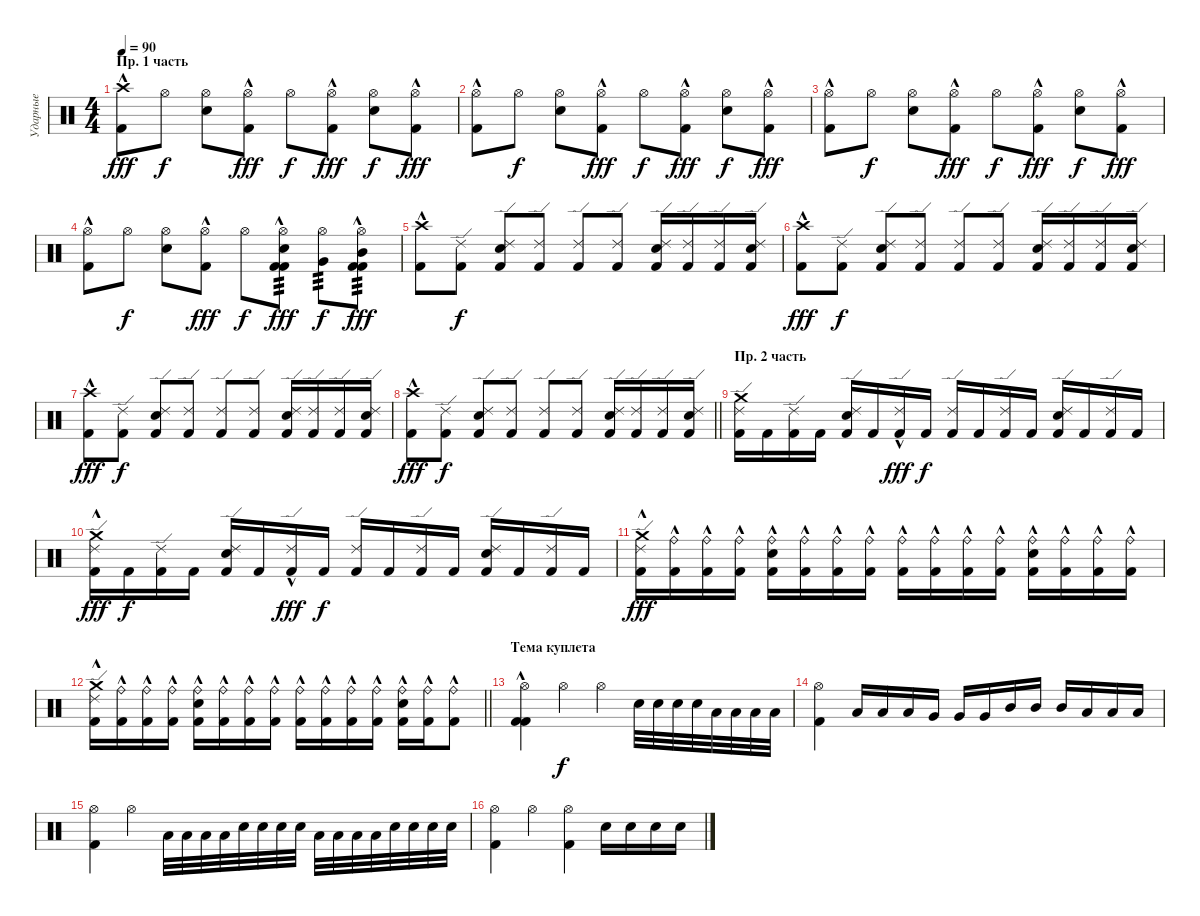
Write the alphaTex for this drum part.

\track ("Ударные" "Ударные") {instrument percussion}
\staff {score}
\articulation defaults
\ts (4 4)
\section ("" "Пр. 1 часть")
\tempo 90
\clef neutral
\ks c
("Crash high (hit)" "Kick (hit) 2"{hac}).8{dy fff} "Hi-Hat (open)".8{dy f} ("Hi-Hat (open)" "Snare (hit) 2").8 ("Hi-Hat (open)" "Kick (hit) 2"{hac}).8{dy fff} "Hi-Hat (open)".8{dy f} ("Hi-Hat (open)" "Kick (hit) 2"{hac}).8{dy fff} ("Hi-Hat (open)" "Snare (hit) 2").8{dy f} ("Hi-Hat (open)" "Kick (hit) 2"{hac}).8{dy fff} |
("Hi-Hat (open)" "Kick (hit) 2"{hac}).8 "Hi-Hat (open)".8{dy f} ("Hi-Hat (open)" "Snare (hit) 2").8 ("Hi-Hat (open)" "Kick (hit) 2"{hac}).8{dy fff} "Hi-Hat (open)".8{dy f} ("Hi-Hat (open)" "Kick (hit) 2"{hac}).8{dy fff} ("Hi-Hat (open)" "Snare (hit) 2").8{dy f} ("Hi-Hat (open)" "Kick (hit) 2"{hac}).8{dy fff} |
("Hi-Hat (open)" "Kick (hit) 2"{hac}).8 "Hi-Hat (open)".8{dy f} ("Hi-Hat (open)" "Snare (hit) 2").8 ("Hi-Hat (open)" "Kick (hit) 2"{hac}).8{dy fff} "Hi-Hat (open)".8{dy f} ("Hi-Hat (open)" "Kick (hit) 2"{hac}).8{dy fff} ("Hi-Hat (open)" "Snare (hit) 2").8{dy f} ("Hi-Hat (open)" "Kick (hit) 2"{hac}).8{dy fff} |
("Hi-Hat (open)" "Kick (hit) 2"{hac}).8 "Hi-Hat (open)".8{dy f} ("Hi-Hat (open)" "Snare (hit) 2").8 ("Hi-Hat (open)" "Kick (hit) 2"{hac}).8{dy fff} "Hi-Hat (open)".8{dy f} ("Hi-Hat (open)" "Kick (hit) 2"{hac} "Kick (hit) 2" "Electric Snare (hit)").8{tp 3 dy fff} ("Hi-Hat (open)" "Very Low Tom (hit)").8{tp 3 dy f} ("Hi-Hat (open)" "Kick (hit) 2"{hac} "Kick (hit) 2" "Mid Tom (hit)").8{tp 3 dy fff} |
("Crash high (hit)" "Kick (hit) 2"{hac}).8 ("Ride (edge) 2" "Kick (hit) 2").8{dy f} ("Ride (edge) 2" "Snare (hit) 2" "Kick (hit) 2").8 ("Ride (edge) 2" "Kick (hit) 2").8 ("Ride (edge) 2" "Kick (hit) 2").8 ("Ride (edge) 2" "Kick (hit) 2").8 ("Ride (edge) 2" "Snare (hit) 2" "Kick (hit) 2").16 ("Ride (edge) 2" "Kick (hit) 2").16 ("Ride (edge) 2" "Kick (hit) 2").16 ("Ride (edge) 2" "Snare (hit) 2" "Kick (hit) 2").16 |
("Crash high (hit)" "Kick (hit) 2"{hac}).8{dy fff} ("Ride (edge) 2" "Kick (hit) 2").8{dy f} ("Ride (edge) 2" "Snare (hit) 2" "Kick (hit) 2").8 ("Ride (edge) 2" "Kick (hit) 2").8 ("Ride (edge) 2" "Kick (hit) 2").8 ("Ride (edge) 2" "Kick (hit) 2").8 ("Ride (edge) 2" "Snare (hit) 2" "Kick (hit) 2").16 ("Ride (edge) 2" "Kick (hit) 2").16 ("Ride (edge) 2" "Kick (hit) 2").16 ("Ride (edge) 2" "Snare (hit) 2" "Kick (hit) 2").16 |
("Crash high (hit)" "Kick (hit) 2"{hac}).8{dy fff} ("Ride (edge) 2" "Kick (hit) 2").8{dy f} ("Ride (edge) 2" "Snare (hit) 2" "Kick (hit) 2").8 ("Ride (edge) 2" "Kick (hit) 2").8 ("Ride (edge) 2" "Kick (hit) 2").8 ("Ride (edge) 2" "Kick (hit) 2").8 ("Ride (edge) 2" "Snare (hit) 2" "Kick (hit) 2").16 ("Ride (edge) 2" "Kick (hit) 2").16 ("Ride (edge) 2" "Kick (hit) 2").16 ("Ride (edge) 2" "Snare (hit) 2" "Kick (hit) 2").16 |
\barLineRight lightlight
("Crash high (hit)" "Kick (hit) 2"{hac}).8{dy fff} ("Ride (edge) 2" "Kick (hit) 2").8{dy f} ("Ride (edge) 2" "Snare (hit) 2" "Kick (hit) 2").8 ("Ride (edge) 2" "Kick (hit) 2").8 ("Ride (edge) 2" "Kick (hit) 2").8 ("Ride (edge) 2" "Kick (hit) 2").8 ("Ride (edge) 2" "Snare (hit) 2" "Kick (hit) 2").16 ("Ride (edge) 2" "Kick (hit) 2").16 ("Ride (edge) 2" "Kick (hit) 2").16 ("Ride (edge) 2" "Snare (hit) 2" "Kick (hit) 2").16 |
\section ("" "Пр. 2 часть")
("Ride (edge) 2" "Kick (hit) 2" "Crash medium (hit)").16 "Kick (hit) 2".16 ("Ride (edge) 2" "Kick (hit) 2").16 "Kick (hit) 2".16 ("Ride (edge) 2" "Snare (hit) 2" "Kick (hit) 2").16 "Kick (hit) 2".16 ("Ride (edge) 2" "Kick (hit) 2"{hac}).16{dy fff} "Kick (hit) 2".16{dy f} ("Ride (edge) 2" "Kick (hit) 2").16 "Kick (hit) 2".16 ("Ride (edge) 2" "Kick (hit) 2").16 "Kick (hit) 2".16 ("Ride (edge) 2" "Snare (hit) 2" "Kick (hit) 2").16 "Kick (hit) 2".16 ("Ride (edge) 2" "Kick (hit) 2").16 "Kick (hit) 2".16 |
("Ride (edge) 2" "Crash medium (hit)" "Kick (hit) 2"{hac}).16{dy fff} "Kick (hit) 2".16{dy f} ("Ride (edge) 2" "Kick (hit) 2").16 "Kick (hit) 2".16 ("Ride (edge) 2" "Snare (hit) 2" "Kick (hit) 2").16 "Kick (hit) 2".16 ("Ride (edge) 2" "Kick (hit) 2"{hac}).16{dy fff} "Kick (hit) 2".16{dy f} ("Ride (edge) 2" "Kick (hit) 2").16 "Kick (hit) 2".16 ("Ride (edge) 2" "Kick (hit) 2").16 "Kick (hit) 2".16 ("Ride (edge) 2" "Snare (hit) 2" "Kick (hit) 2").16 "Kick (hit) 2".16 ("Ride (edge) 2" "Kick (hit) 2").16 "Kick (hit) 2".16 |
("Ride (edge) 2" "Crash medium (hit)" "Kick (hit) 2"{hac}).16{dy fff} ("Kick (hit) 2"{hac} "Ride (bell)").16 ("Kick (hit) 2"{hac} "Ride (bell)").16 ("Kick (hit) 2"{hac} "Ride (bell)").16 ("Ride (bell)" "Snare (hit) 2" "Kick (hit) 2"{hac}).16 ("Kick (hit) 2"{hac} "Ride (bell)").16 ("Kick (hit) 2"{hac} "Ride (bell)").16 ("Kick (hit) 2"{hac} "Ride (bell)").16 ("Kick (hit) 2"{hac} "Ride (bell)").16 ("Kick (hit) 2"{hac} "Ride (bell)").16 ("Kick (hit) 2"{hac} "Ride (bell)").16 ("Kick (hit) 2"{hac} "Ride (bell)").16 ("Ride (bell)" "Snare (hit) 2" "Kick (hit) 2"{hac}).16 ("Kick (hit) 2"{hac} "Ride (bell)").16 ("Kick (hit) 2"{hac} "Ride (bell)").16 ("Kick (hit) 2"{hac} "Ride (bell)").16 |
\barLineRight lightlight
("Ride (edge) 2" "Crash medium (hit)" "Kick (hit) 2"{hac}).16 ("Kick (hit) 2"{hac} "Ride (bell)").16 ("Kick (hit) 2"{hac} "Ride (bell)").16 ("Kick (hit) 2"{hac} "Ride (bell)").16 ("Ride (bell)" "Snare (hit) 2" "Kick (hit) 2"{hac}).16 ("Kick (hit) 2"{hac} "Ride (bell)").16 ("Kick (hit) 2"{hac} "Ride (bell)").16 ("Kick (hit) 2"{hac} "Ride (bell)").16 ("Kick (hit) 2"{hac} "Ride (bell)").16 ("Kick (hit) 2"{hac} "Ride (bell)").16 ("Kick (hit) 2"{hac} "Ride (bell)").16 ("Kick (hit) 2"{hac} "Ride (bell)").16 ("Ride (bell)" "Snare (hit) 2" "Kick (hit) 2"{hac}).16 ("Kick (hit) 2"{hac} "Ride (bell)").16 ("Kick (hit) 2"{hac} "Ride (bell)").8 |
\section ("" "Тема куплета")
("Hi-Hat (open)" "Kick (hit) 2"{hac} "Kick (hit) 2").4 "Hi-Hat (open)".4{dy f} "Hi-Hat (open)".4 "Snare (hit) 2".32 "Snare (hit) 2".32 "Snare (hit) 2".32 "Snare (hit) 2".32 "Low Tom (hit)".32 "Low Tom (hit)".32 "Low Tom (hit)".32 "Low Tom (hit)".32 |
("Hi-Hat (open)" "Kick (hit) 2").4 "Low Tom (hit)".16 "Low Tom (hit)".16 "Low Tom (hit)".16 "Very Low Tom (hit)".16 "Very Low Tom (hit)".16 "Very Low Tom (hit)".16 "Mid Tom (hit)".16 "Mid Tom (hit)".16 "Mid Tom (hit)".16 "Low Tom (hit)".16 "Low Tom (hit)".16 "Low Tom (hit)".16 |
("Hi-Hat (open)" "Kick (hit) 2").4 "Hi-Hat (open)".4 "Low Tom (hit)".32 "Low Tom (hit)".32 "Low Tom (hit)".32 "Low Tom (hit)".32 "Snare (hit) 2".32 "Snare (hit) 2".32 "Snare (hit) 2".32 "Snare (hit) 2".32 "Low Tom (hit)".32 "Low Tom (hit)".32 "Low Tom (hit)".32 "Low Tom (hit)".32 "Snare (hit) 2".32 "Snare (hit) 2".32 "Snare (hit) 2".32 "Snare (hit) 2".32 |
("Hi-Hat (open)" "Kick (hit) 2").4 "Hi-Hat (open)".4 ("Hi-Hat (open)" "Kick (hit) 2").4 "Snare (hit) 2".16 "Snare (hit) 2".16 "Snare (hit) 2".16 "Snare (hit) 2".16
